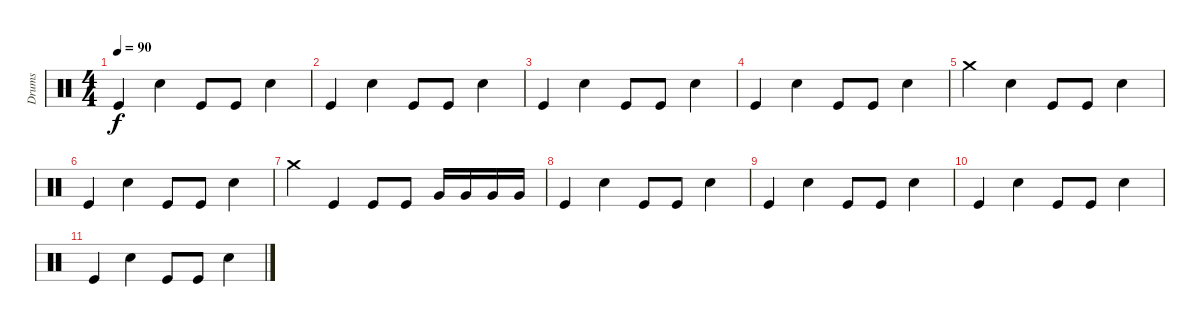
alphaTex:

\track ("Drums" "Drums") {instrument percussion}
\staff {score}
\articulation defaults
\ts (4 4)
\tempo 90
\clef neutral
\ks c "Kick (hit)".4{dy f} "Electric Snare (hit)".4 "Kick (hit)".8 "Kick (hit)".8 "Electric Snare (hit)".4
|
"Kick (hit)".4 "Electric Snare (hit)".4 "Kick (hit)".8 "Kick (hit)".8 "Electric Snare (hit)".4 |
"Kick (hit)".4 "Electric Snare (hit)".4 "Kick (hit)".8 "Kick (hit)".8 "Electric Snare (hit)".4 |
"Kick (hit)".4 "Electric Snare (hit)".4 "Kick (hit)".8 "Kick (hit)".8 "Electric Snare (hit)".4 |
"Crash medium (hit)".4 "Electric Snare (hit)".4 "Kick (hit)".8 "Kick (hit)".8 "Electric Snare (hit)".4 |
"Kick (hit)".4 "Electric Snare (hit)".4 "Kick (hit)".8 "Kick (hit)".8 "Electric Snare (hit)".4 |
"Crash medium (hit)".4 "Kick (hit)".4 "Kick (hit)".8 "Kick (hit)".8 "Very Low Tom (hit)".16 "Very Low Tom (hit)".16 "Very Low Tom (hit)".16 "Very Low Tom (hit)".16 |
"Kick (hit)".4 "Electric Snare (hit)".4 "Kick (hit)".8 "Kick (hit)".8 "Electric Snare (hit)".4 |
"Kick (hit)".4 "Electric Snare (hit)".4 "Kick (hit)".8 "Kick (hit)".8 "Electric Snare (hit)".4 |
"Kick (hit)".4 "Electric Snare (hit)".4 "Kick (hit)".8 "Kick (hit)".8 "Electric Snare (hit)".4 |
"Kick (hit)".4 "Electric Snare (hit)".4 "Kick (hit)".8 "Kick (hit)".8 "Electric Snare (hit)".4
